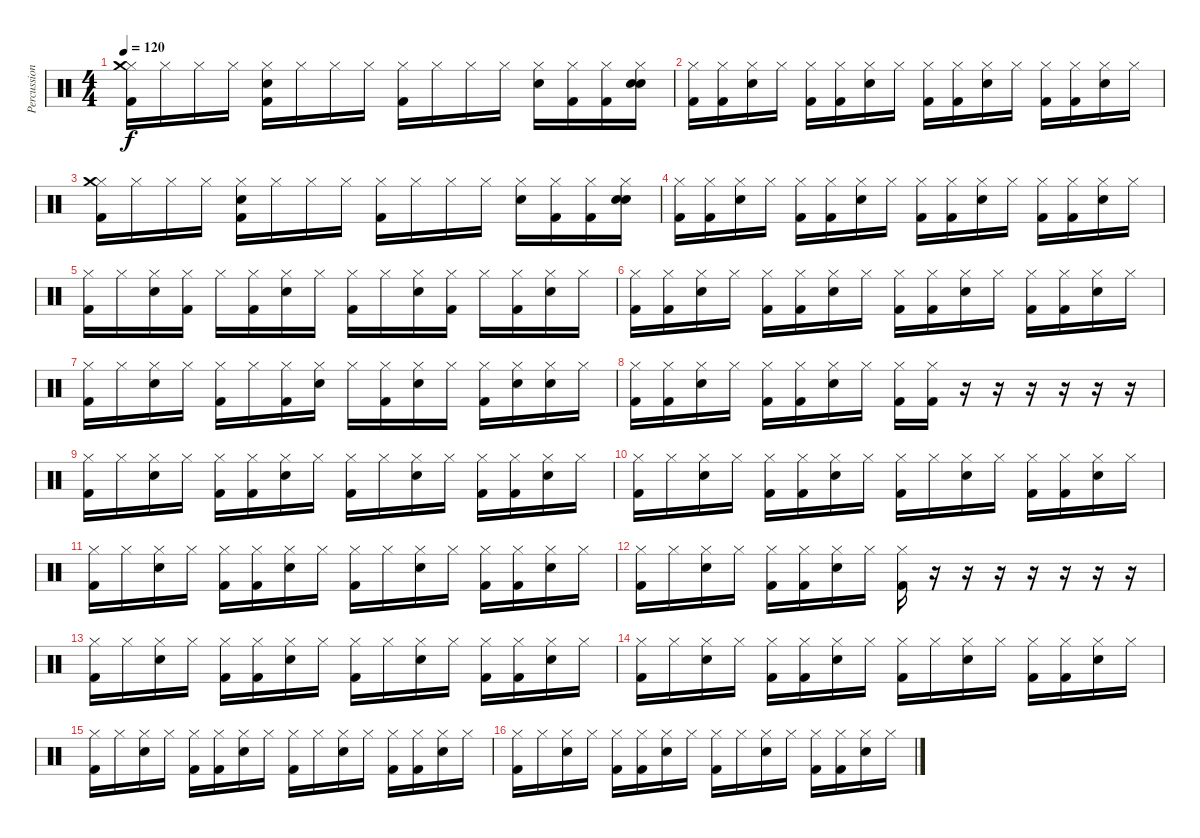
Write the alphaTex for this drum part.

\track ("Percussions" "Percussion") {instrument percussion}
\staff {score}
\articulation defaults
\ts (4 4)
\tempo 120
\clef neutral
\ks c
("Hi-Hat (closed)" "Crash medium (hit)" "Kick (hit) 2").16{dy f volume 16} "Hi-Hat (closed)".16 "Hi-Hat (closed)".16 "Hi-Hat (closed)".16 ("Hi-Hat (closed)" "Electric Snare (hit)" "Kick (hit) 2").16 "Hi-Hat (closed)".16 "Hi-Hat (closed)".16 "Hi-Hat (closed)".16 ("Hi-Hat (closed)" "Kick (hit) 2").16 "Hi-Hat (closed)".16 "Hi-Hat (closed)".16 "Hi-Hat (closed)".16 ("Hi-Hat (closed)" "Electric Snare (hit)").16 ("Hi-Hat (closed)" "Kick (hit) 2").16 ("Hi-Hat (closed)" "Kick (hit) 2").16 ("Hi-Hat (closed)" "Electric Snare (hit)" "Snare (hit) 2").16 |
("Hi-Hat (closed)" "Kick (hit) 2").16 ("Hi-Hat (closed)" "Kick (hit) 2").16 ("Hi-Hat (closed)" "Electric Snare (hit)").16 "Hi-Hat (closed)".16 ("Hi-Hat (closed)" "Kick (hit) 2").16 ("Hi-Hat (closed)" "Kick (hit) 2").16 ("Hi-Hat (closed)" "Electric Snare (hit)").16 "Hi-Hat (closed)".16 ("Hi-Hat (closed)" "Kick (hit) 2").16 ("Hi-Hat (closed)" "Kick (hit) 2").16 ("Hi-Hat (closed)" "Electric Snare (hit)").16 "Hi-Hat (closed)".16 ("Hi-Hat (closed)" "Kick (hit) 2").16 ("Hi-Hat (closed)" "Kick (hit) 2").16 ("Hi-Hat (closed)" "Electric Snare (hit)").16 "Hi-Hat (closed)".16 |
("Hi-Hat (closed)" "Crash medium (hit)" "Kick (hit) 2").16 "Hi-Hat (closed)".16 "Hi-Hat (closed)".16 "Hi-Hat (closed)".16 ("Hi-Hat (closed)" "Electric Snare (hit)" "Kick (hit) 2").16 "Hi-Hat (closed)".16 "Hi-Hat (closed)".16 "Hi-Hat (closed)".16 ("Hi-Hat (closed)" "Kick (hit) 2").16 "Hi-Hat (closed)".16 "Hi-Hat (closed)".16 "Hi-Hat (closed)".16 ("Hi-Hat (closed)" "Electric Snare (hit)").16 ("Hi-Hat (closed)" "Kick (hit) 2").16 ("Hi-Hat (closed)" "Kick (hit) 2").16 ("Hi-Hat (closed)" "Electric Snare (hit)" "Snare (hit) 2").16 |
("Hi-Hat (closed)" "Kick (hit) 2").16 ("Hi-Hat (closed)" "Kick (hit) 2").16 ("Hi-Hat (closed)" "Electric Snare (hit)").16 "Hi-Hat (closed)".16 ("Hi-Hat (closed)" "Kick (hit) 2").16 ("Hi-Hat (closed)" "Kick (hit) 2").16 ("Hi-Hat (closed)" "Electric Snare (hit)").16 "Hi-Hat (closed)".16 ("Hi-Hat (closed)" "Kick (hit) 2").16 ("Hi-Hat (closed)" "Kick (hit) 2").16 ("Hi-Hat (closed)" "Electric Snare (hit)").16 "Hi-Hat (closed)".16 ("Hi-Hat (closed)" "Kick (hit) 2").16 ("Hi-Hat (closed)" "Kick (hit) 2").16 ("Hi-Hat (closed)" "Electric Snare (hit)").16 "Hi-Hat (closed)".16 |
("Hi-Hat (closed)" "Kick (hit) 2").16 "Hi-Hat (closed)".16 ("Hi-Hat (closed)" "Electric Snare (hit)").16 ("Hi-Hat (closed)" "Kick (hit) 2").16 "Hi-Hat (closed)".16 ("Hi-Hat (closed)" "Kick (hit) 2").16 ("Hi-Hat (closed)" "Electric Snare (hit)").16 "Hi-Hat (closed)".16 ("Hi-Hat (closed)" "Kick (hit) 2").16 "Hi-Hat (closed)".16 ("Hi-Hat (closed)" "Electric Snare (hit)").16 ("Hi-Hat (closed)" "Kick (hit) 2").16 "Hi-Hat (closed)".16 ("Hi-Hat (closed)" "Kick (hit) 2").16 ("Hi-Hat (closed)" "Electric Snare (hit)").16 "Hi-Hat (closed)".16 |
("Hi-Hat (closed)" "Kick (hit) 2").16 ("Hi-Hat (closed)" "Kick (hit) 2").16 ("Hi-Hat (closed)" "Electric Snare (hit)").16 "Hi-Hat (closed)".16 ("Hi-Hat (closed)" "Kick (hit) 2").16 ("Hi-Hat (closed)" "Kick (hit) 2").16 ("Hi-Hat (closed)" "Electric Snare (hit)").16 "Hi-Hat (closed)".16 ("Hi-Hat (closed)" "Kick (hit) 2").16 ("Hi-Hat (closed)" "Kick (hit) 2").16 ("Hi-Hat (closed)" "Electric Snare (hit)").16 "Hi-Hat (closed)".16 ("Hi-Hat (closed)" "Kick (hit) 2").16 ("Hi-Hat (closed)" "Kick (hit) 2").16 ("Hi-Hat (closed)" "Electric Snare (hit)").16 "Hi-Hat (closed)".16 |
("Hi-Hat (closed)" "Kick (hit) 2").16 "Hi-Hat (closed)".16 ("Hi-Hat (closed)" "Electric Snare (hit)").16 "Hi-Hat (closed)".16 ("Hi-Hat (closed)" "Kick (hit) 2").16 "Hi-Hat (closed)".16 ("Hi-Hat (closed)" "Kick (hit) 2").16 ("Hi-Hat (closed)" "Electric Snare (hit)").16 "Hi-Hat (closed)".16 ("Hi-Hat (closed)" "Kick (hit) 2").16 ("Hi-Hat (closed)" "Electric Snare (hit)").16 "Hi-Hat (closed)".16 ("Hi-Hat (closed)" "Kick (hit) 2").16 ("Hi-Hat (closed)" "Electric Snare (hit)").16 ("Hi-Hat (closed)" "Snare (hit) 2").16 "Hi-Hat (closed)".16 |
("Hi-Hat (closed)" "Kick (hit) 2").16 ("Hi-Hat (closed)" "Kick (hit) 2").16 ("Hi-Hat (closed)" "Electric Snare (hit)").16 "Hi-Hat (closed)".16 ("Hi-Hat (closed)" "Kick (hit) 2").16 ("Hi-Hat (closed)" "Kick (hit) 2").16 ("Hi-Hat (closed)" "Electric Snare (hit)").16 "Hi-Hat (closed)".16 ("Hi-Hat (closed)" "Kick (hit) 2").16 ("Hi-Hat (closed)" "Kick (hit) 2").16 r.16 r.16 r.16 r.16 r.16 r.16 |
("Hi-Hat (closed)" "Kick (hit) 2").16 "Hi-Hat (closed)".16 ("Hi-Hat (closed)" "Electric Snare (hit)").16 "Hi-Hat (closed)".16 ("Hi-Hat (closed)" "Kick (hit) 2").16 ("Hi-Hat (closed)" "Kick (hit) 2").16 ("Hi-Hat (closed)" "Electric Snare (hit)").16 "Hi-Hat (closed)".16 ("Hi-Hat (closed)" "Kick (hit) 2").16 "Hi-Hat (closed)".16 ("Hi-Hat (closed)" "Electric Snare (hit)").16 "Hi-Hat (closed)".16 ("Hi-Hat (closed)" "Kick (hit) 2").16 ("Hi-Hat (closed)" "Kick (hit) 2").16 ("Hi-Hat (closed)" "Electric Snare (hit)").16 "Hi-Hat (closed)".16 |
("Hi-Hat (closed)" "Kick (hit) 2").16 "Hi-Hat (closed)".16 ("Hi-Hat (closed)" "Electric Snare (hit)").16 "Hi-Hat (closed)".16 ("Hi-Hat (closed)" "Kick (hit) 2").16 ("Hi-Hat (closed)" "Kick (hit) 2").16 ("Hi-Hat (closed)" "Electric Snare (hit)").16 "Hi-Hat (closed)".16 ("Hi-Hat (closed)" "Kick (hit) 2").16 "Hi-Hat (closed)".16 ("Hi-Hat (closed)" "Electric Snare (hit)").16 "Hi-Hat (closed)".16 ("Hi-Hat (closed)" "Kick (hit) 2").16 ("Hi-Hat (closed)" "Kick (hit) 2").16 ("Hi-Hat (closed)" "Electric Snare (hit)").16 "Hi-Hat (closed)".16 |
("Hi-Hat (closed)" "Kick (hit) 2").16 "Hi-Hat (closed)".16 ("Hi-Hat (closed)" "Electric Snare (hit)").16 "Hi-Hat (closed)".16 ("Hi-Hat (closed)" "Kick (hit) 2").16 ("Hi-Hat (closed)" "Kick (hit) 2").16 ("Hi-Hat (closed)" "Electric Snare (hit)").16 "Hi-Hat (closed)".16 ("Hi-Hat (closed)" "Kick (hit) 2").16 "Hi-Hat (closed)".16 ("Hi-Hat (closed)" "Electric Snare (hit)").16 "Hi-Hat (closed)".16 ("Hi-Hat (closed)" "Kick (hit) 2").16 ("Hi-Hat (closed)" "Kick (hit) 2").16 ("Hi-Hat (closed)" "Electric Snare (hit)").16 "Hi-Hat (closed)".16 |
("Hi-Hat (closed)" "Kick (hit) 2").16 "Hi-Hat (closed)".16 ("Hi-Hat (closed)" "Electric Snare (hit)").16 "Hi-Hat (closed)".16 ("Hi-Hat (closed)" "Kick (hit) 2").16 ("Hi-Hat (closed)" "Kick (hit) 2").16 ("Hi-Hat (closed)" "Electric Snare (hit)").16 "Hi-Hat (closed)".16 ("Hi-Hat (closed)" "Kick (hit) 2").16 r.16 r.16 r.16 r.16 r.16 r.16 r.16 |
("Hi-Hat (closed)" "Kick (hit) 2").16 "Hi-Hat (closed)".16 ("Hi-Hat (closed)" "Electric Snare (hit)").16 "Hi-Hat (closed)".16 ("Hi-Hat (closed)" "Kick (hit) 2").16 ("Hi-Hat (closed)" "Kick (hit) 2").16 ("Hi-Hat (closed)" "Electric Snare (hit)").16 "Hi-Hat (closed)".16 ("Hi-Hat (closed)" "Kick (hit) 2").16 "Hi-Hat (closed)".16 ("Hi-Hat (closed)" "Electric Snare (hit)").16 "Hi-Hat (closed)".16 ("Hi-Hat (closed)" "Kick (hit) 2").16 ("Hi-Hat (closed)" "Kick (hit) 2").16 ("Hi-Hat (closed)" "Electric Snare (hit)").16 "Hi-Hat (closed)".16 |
("Hi-Hat (closed)" "Kick (hit) 2").16 "Hi-Hat (closed)".16 ("Hi-Hat (closed)" "Electric Snare (hit)").16 "Hi-Hat (closed)".16 ("Hi-Hat (closed)" "Kick (hit) 2").16 ("Hi-Hat (closed)" "Kick (hit) 2").16 ("Hi-Hat (closed)" "Electric Snare (hit)").16 "Hi-Hat (closed)".16 ("Hi-Hat (closed)" "Kick (hit) 2").16 "Hi-Hat (closed)".16 ("Hi-Hat (closed)" "Electric Snare (hit)").16 "Hi-Hat (closed)".16 ("Hi-Hat (closed)" "Kick (hit) 2").16 ("Hi-Hat (closed)" "Kick (hit) 2").16 ("Hi-Hat (closed)" "Electric Snare (hit)").16 "Hi-Hat (closed)".16 |
("Hi-Hat (closed)" "Kick (hit) 2").16 "Hi-Hat (closed)".16 ("Hi-Hat (closed)" "Electric Snare (hit)").16 "Hi-Hat (closed)".16 ("Hi-Hat (closed)" "Kick (hit) 2").16 ("Hi-Hat (closed)" "Kick (hit) 2").16 ("Hi-Hat (closed)" "Electric Snare (hit)").16 "Hi-Hat (closed)".16 ("Hi-Hat (closed)" "Kick (hit) 2").16 "Hi-Hat (closed)".16 ("Hi-Hat (closed)" "Electric Snare (hit)").16 "Hi-Hat (closed)".16 ("Hi-Hat (closed)" "Kick (hit) 2").16 ("Hi-Hat (closed)" "Kick (hit) 2").16 ("Hi-Hat (closed)" "Electric Snare (hit)").16 "Hi-Hat (closed)".16 |
("Hi-Hat (closed)" "Kick (hit) 2").16 "Hi-Hat (closed)".16 ("Hi-Hat (closed)" "Electric Snare (hit)").16 "Hi-Hat (closed)".16 ("Hi-Hat (closed)" "Kick (hit) 2").16 ("Hi-Hat (closed)" "Kick (hit) 2").16 ("Hi-Hat (closed)" "Electric Snare (hit)").16 "Hi-Hat (closed)".16 ("Hi-Hat (closed)" "Kick (hit) 2").16 "Hi-Hat (closed)".16 ("Hi-Hat (closed)" "Electric Snare (hit)").16 "Hi-Hat (closed)".16 ("Hi-Hat (closed)" "Kick (hit) 2").16 ("Hi-Hat (closed)" "Kick (hit) 2").16 ("Hi-Hat (closed)" "Electric Snare (hit)").16 "Hi-Hat (closed)".16
